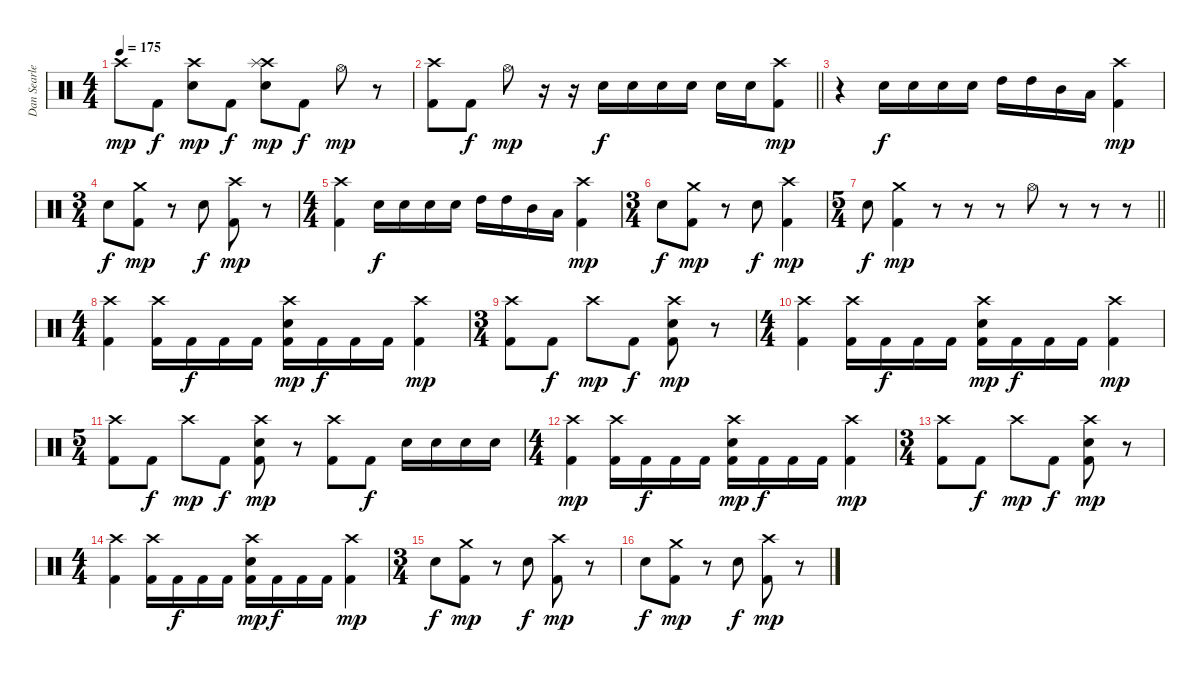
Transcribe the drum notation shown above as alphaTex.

\track ("Dan Searle" "Dan Searle") {instrument percussion}
\staff {score}
\articulation defaults
\ts (4 4)
\tempo 175
\clef neutral
\ks c "Crash high (hit)".8{dy mp} "Kick (hit) 2".8{dy f}
("Crash high (hit)" "Electric Snare (hit)").8{dy mp} "Kick (hit) 2".8{dy f} ("Crash high (hit)" "Splash (hit)" "Electric Snare (hit)").8{dy mp} "Kick (hit) 2".8{dy f} "Hi-Hat (open)".8{dy mp} r.8 |
\barLineRight lightlight
("Crash high (hit)" "Kick (hit) 2").8 "Kick (hit) 2".8{dy f} "Hi-Hat (open)".8{dy mp} r.16 r.16 "Electric Snare (hit)".16{dy f} "Electric Snare (hit)".16 "Electric Snare (hit)".16 "Electric Snare (hit)".16 "Electric Snare (hit)".16 "Electric Snare (hit)".16 ("Crash high (hit)" "Kick (hit) 2").8{dy mp} |
r.4 "Electric Snare (hit)".16{dy f} "Electric Snare (hit)".16 "Electric Snare (hit)".16 "Electric Snare (hit)".16 "High Tom (hit)".16 "High Tom (hit)".16 "Mid Tom (hit)".16 "Low Tom (hit)".16 ("Crash high (hit)" "Kick (hit) 2").4{dy mp} |
\ts (3 4)
"Electric Snare (hit)".8{dy f} ("Crash medium (hit)" "Kick (hit) 2").8{dy mp} r.8 "Electric Snare (hit)".8{dy f} ("Crash high (hit)" "Kick (hit) 2").8{dy mp} r.8 |
\ts (4 4)
("Crash high (hit)" "Kick (hit) 2").4 "Electric Snare (hit)".16{dy f} "Electric Snare (hit)".16 "Electric Snare (hit)".16 "Electric Snare (hit)".16 "High Tom (hit)".16 "High Tom (hit)".16 "Mid Tom (hit)".16 "Low Tom (hit)".16 ("Crash high (hit)" "Kick (hit) 2").4{dy mp} |
\ts (3 4)
"Electric Snare (hit)".8{dy f} ("Crash medium (hit)" "Kick (hit) 2").8{dy mp} r.8 "Electric Snare (hit)".8{dy f} ("Crash high (hit)" "Kick (hit) 2").4{dy mp} |
\ts (5 4)
\barLineRight lightlight "Electric Snare (hit)".8{dy f}
("Crash medium (hit)" "Kick (hit) 2").4{dy mp} r.8 r.8 r.8 "Hi-Hat (open)".8 r.8 r.8 r.8 |
\ts (4 4)
("Crash high (hit)" "Kick (hit) 2").4 ("Crash high (hit)" "Kick (hit) 2").16 "Kick (hit) 2".16{dy f} "Kick (hit) 2".16 "Kick (hit) 2".16 ("Crash high (hit)" "Electric Snare (hit)" "Kick (hit) 2").16{dy mp} "Kick (hit) 2".16{dy f} "Kick (hit) 2".16 "Kick (hit) 2".16 ("Crash high (hit)" "Kick (hit) 2").4{dy mp} |
\ts (3 4)
("Crash high (hit)" "Kick (hit) 2").8 "Kick (hit) 2".8{dy f} "Crash high (hit)".8{dy mp} "Kick (hit) 2".8{dy f} ("Crash high (hit)" "Electric Snare (hit)" "Kick (hit) 2").8{dy mp} r.8 |
\ts (4 4)
("Crash high (hit)" "Kick (hit) 2").4 ("Crash high (hit)" "Kick (hit) 2").16 "Kick (hit) 2".16{dy f} "Kick (hit) 2".16 "Kick (hit) 2".16 ("Crash high (hit)" "Electric Snare (hit)" "Kick (hit) 2").16{dy mp} "Kick (hit) 2".16{dy f} "Kick (hit) 2".16 "Kick (hit) 2".16 ("Crash high (hit)" "Kick (hit) 2").4{dy mp} |
\ts (5 4)
("Crash high (hit)" "Kick (hit) 2").8 "Kick (hit) 2".8{dy f} "Crash high (hit)".8{dy mp} "Kick (hit) 2".8{dy f} ("Crash high (hit)" "Electric Snare (hit)" "Kick (hit) 2").8{dy mp} r.8 ("Crash high (hit)" "Kick (hit) 2").8 "Kick (hit) 2".8{dy f} "Electric Snare (hit)".16 "Electric Snare (hit)".16 "Electric Snare (hit)".16 "Electric Snare (hit)".16 |
\ts (4 4)
("Crash high (hit)" "Kick (hit) 2").4{dy mp} ("Crash high (hit)" "Kick (hit) 2").16 "Kick (hit) 2".16{dy f} "Kick (hit) 2".16 "Kick (hit) 2".16 ("Crash high (hit)" "Electric Snare (hit)" "Kick (hit) 2").16{dy mp} "Kick (hit) 2".16{dy f} "Kick (hit) 2".16 "Kick (hit) 2".16 ("Crash high (hit)" "Kick (hit) 2").4{dy mp} |
\ts (3 4)
("Crash high (hit)" "Kick (hit) 2").8 "Kick (hit) 2".8{dy f} "Crash high (hit)".8{dy mp} "Kick (hit) 2".8{dy f} ("Crash high (hit)" "Electric Snare (hit)" "Kick (hit) 2").8{dy mp} r.8 |
\ts (4 4)
("Crash high (hit)" "Kick (hit) 2").4 ("Crash high (hit)" "Kick (hit) 2").16 "Kick (hit) 2".16{dy f} "Kick (hit) 2".16 "Kick (hit) 2".16 ("Crash high (hit)" "Electric Snare (hit)" "Kick (hit) 2").16{dy mp} "Kick (hit) 2".16{dy f} "Kick (hit) 2".16 "Kick (hit) 2".16 ("Crash high (hit)" "Kick (hit) 2").4{dy mp} |
\ts (3 4)
"Electric Snare (hit)".8{dy f} ("Crash medium (hit)" "Kick (hit) 2").8{dy mp} r.8 "Electric Snare (hit)".8{dy f} ("Crash high (hit)" "Kick (hit) 2").8{dy mp} r.8 |
"Electric Snare (hit)".8{dy f} ("Crash medium (hit)" "Kick (hit) 2").8{dy mp} r.8 "Electric Snare (hit)".8{dy f} ("Crash high (hit)" "Kick (hit) 2").8{dy mp} r.8
